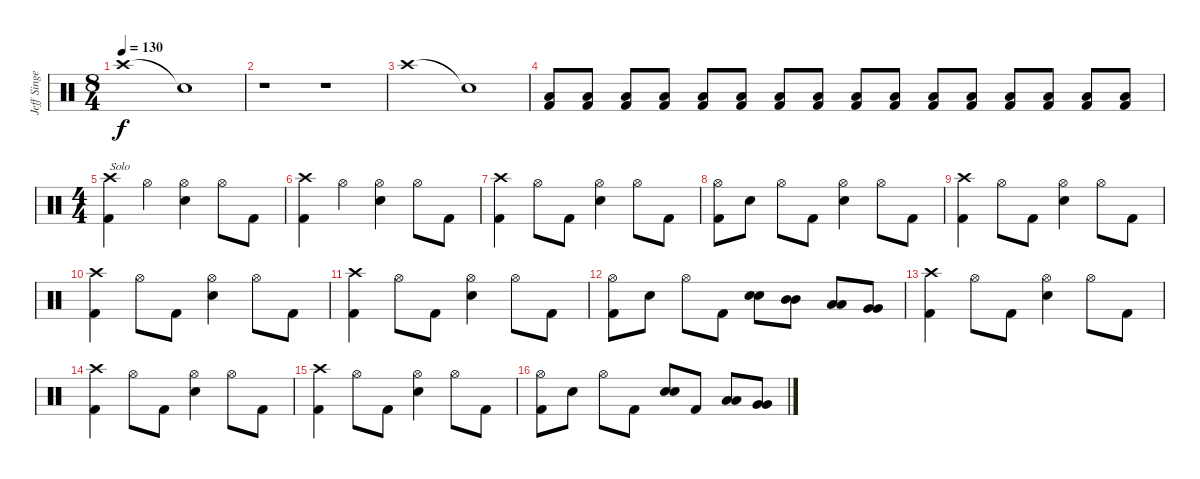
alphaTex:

\track ("Jeff Singer" "Jeff Singe") {instrument percussion}
\staff {score}
\articulation defaults
\ts (8 4)
\tempo 130
\clef neutral
\ks c "Crash high (hit)".1{dy f} "Snare (hit)"{t}.1
|
r.1 r.1 |
"Crash high (hit)".1 "Snare (hit)"{t}.1 |
("Low Floor Tom (hit)" "Kick (hit) 2").8{volume 4} ("Low Floor Tom (hit)" "Kick (hit) 2").8{volume 16} ("Low Floor Tom (hit)" "Kick (hit) 2").8 ("Low Floor Tom (hit)" "Kick (hit) 2").8 ("Low Floor Tom (hit)" "Kick (hit) 2").8 ("Low Floor Tom (hit)" "Kick (hit) 2").8 ("Low Floor Tom (hit)" "Kick (hit) 2").8 ("Low Floor Tom (hit)" "Kick (hit) 2").8 ("Low Floor Tom (hit)" "Kick (hit) 2").8 ("Low Floor Tom (hit)" "Kick (hit) 2").8 ("Low Floor Tom (hit)" "Kick (hit) 2").8 ("Low Floor Tom (hit)" "Kick (hit) 2").8 ("Low Floor Tom (hit)" "Kick (hit) 2").8 ("Low Floor Tom (hit)" "Kick (hit) 2").8 ("Low Floor Tom (hit)" "Kick (hit) 2").8 ("Low Floor Tom (hit)" "Kick (hit) 2").8 |
\ts (4 4)
("Crash high (hit)" "Kick (hit) 2").4{txt "Solo"} "Hi-Hat (open)".4 ("Hi-Hat (open)" "Snare (hit) 2").4 "Hi-Hat (open)".8 "Kick (hit) 2".8 |
("Crash high (hit)" "Kick (hit) 2").4 "Hi-Hat (open)".4 ("Hi-Hat (open)" "Snare (hit) 2").4 "Hi-Hat (open)".8 "Kick (hit) 2".8 |
("Crash high (hit)" "Kick (hit) 2").4 "Hi-Hat (open)".8 "Kick (hit) 2".8 ("Hi-Hat (open)" "Snare (hit) 2").4 "Hi-Hat (open)".8 "Kick (hit) 2".8 |
("Hi-Hat (open)" "Kick (hit) 2").8 "Snare (hit) 2".8 "Hi-Hat (open)".8 "Kick (hit) 2".8 ("Hi-Hat (open)" "Snare (hit) 2").4 "Hi-Hat (open)".8 "Kick (hit) 2".8 |
("Crash high (hit)" "Kick (hit) 2").4 "Hi-Hat (open)".8 "Kick (hit) 2".8 ("Hi-Hat (open)" "Snare (hit) 2").4 "Hi-Hat (open)".8 "Kick (hit) 2".8 |
("Crash high (hit)" "Kick (hit) 2").4 "Hi-Hat (open)".8 "Kick (hit) 2".8 ("Hi-Hat (open)" "Snare (hit) 2").4 "Hi-Hat (open)".8 "Kick (hit) 2".8 |
("Crash high (hit)" "Kick (hit) 2").4 "Hi-Hat (open)".8 "Kick (hit) 2".8 ("Hi-Hat (open)" "Snare (hit) 2").4 "Hi-Hat (open)".8 "Kick (hit) 2".8 |
("Hi-Hat (open)" "Kick (hit) 2").8 "Snare (hit) 2".8 "Hi-Hat (open)".8 "Kick (hit) 2".8 ("Snare (hit) 2" "Snare (hit) 2").8 ("Mid Tom (hit)" "Mid Tom (hit)").8 ("Low Tom (hit)" "Low Tom (hit)").8 ("Very Low Tom (hit)" "Very Low Tom (hit)").8 |
("Crash high (hit)" "Kick (hit) 2").4 "Hi-Hat (open)".8 "Kick (hit) 2".8 ("Hi-Hat (open)" "Snare (hit) 2").4 "Hi-Hat (open)".8 "Kick (hit) 2".8 |
("Crash high (hit)" "Kick (hit) 2").4 "Hi-Hat (open)".8 "Kick (hit) 2".8 ("Hi-Hat (open)" "Snare (hit) 2").4 "Hi-Hat (open)".8 "Kick (hit) 2".8 |
("Crash high (hit)" "Kick (hit) 2").4 "Hi-Hat (open)".8 "Kick (hit) 2".8 ("Hi-Hat (open)" "Snare (hit) 2").4 "Hi-Hat (open)".8 "Kick (hit) 2".8 |
("Hi-Hat (open)" "Kick (hit) 2").8 "Snare (hit) 2".8 "Hi-Hat (open)".8 "Kick (hit) 2".8 ("Snare (hit) 2" "Snare (hit) 2").8 "Kick (hit) 2".8 ("Low Tom (hit)" "Low Tom (hit)").8 ("Very Low Tom (hit)" "Very Low Tom (hit)").8
